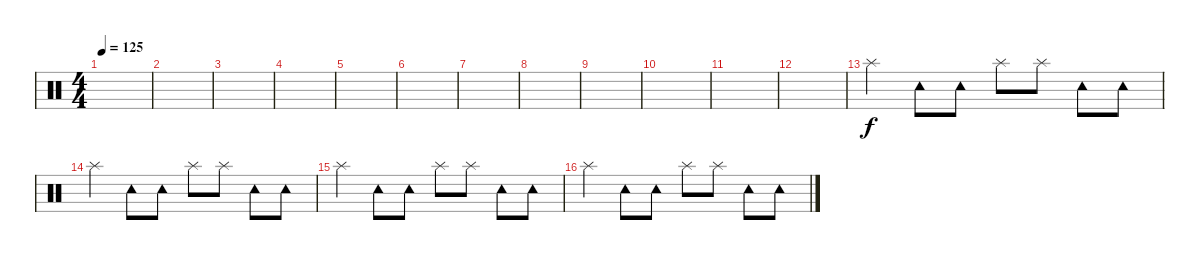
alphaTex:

\track "" {instrument percussion}
\staff {score}
\articulation defaults
\ts (4 4)
\tempo 125
\clef neutral
\ks c
|
|
|
|
|
|
|
|
|
|
|
|
"Splash (hit)".4 "Tambourine (hit)".8 "Tambourine (hit)".8 "Splash (hit)".8 "Splash (hit)".8 "Tambourine (hit)".8 "Tambourine (hit)".8 |
"Splash (hit)".4 "Tambourine (hit)".8 "Tambourine (hit)".8 "Splash (hit)".8 "Splash (hit)".8 "Tambourine (hit)".8 "Tambourine (hit)".8 |
"Splash (hit)".4 "Tambourine (hit)".8 "Tambourine (hit)".8 "Splash (hit)".8 "Splash (hit)".8 "Tambourine (hit)".8 "Tambourine (hit)".8 |
"Splash (hit)".4 "Tambourine (hit)".8 "Tambourine (hit)".8 "Splash (hit)".8 "Splash (hit)".8 "Tambourine (hit)".8 "Tambourine (hit)".8
